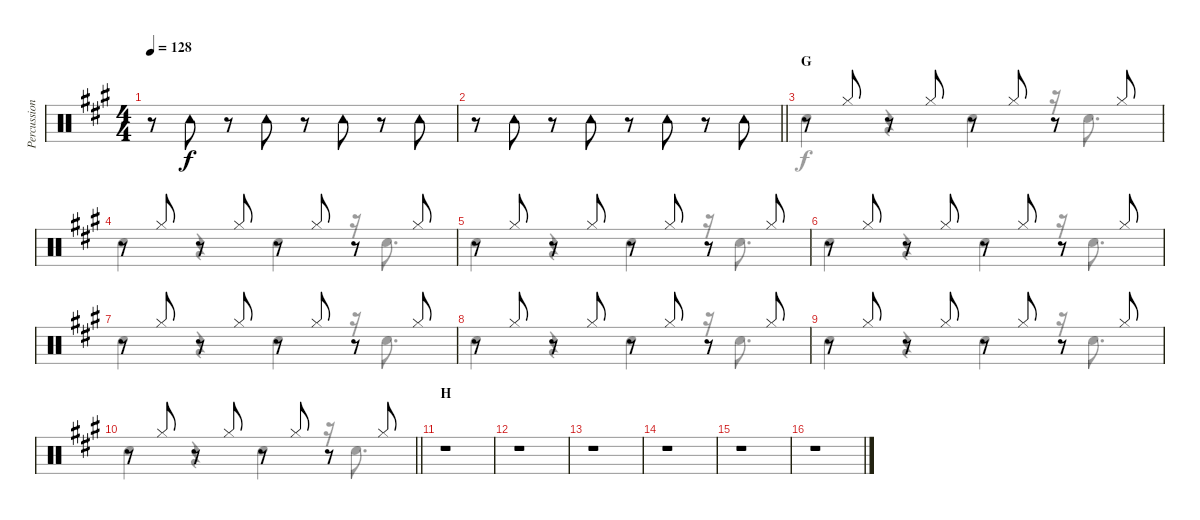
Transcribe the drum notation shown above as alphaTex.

\track ("Percussion" "Percussion") {instrument percussion}
\staff {score}
\articulation defaults
\voice
\ts (4 4)
\tempo 128
\clef neutral
\ks a
r.8{dy f} "Tambourine (hit)".8 r.8 "Tambourine (hit)".8 r.8 "Tambourine (hit)".8 r.8 "Tambourine (hit)".8 |
\barLineRight lightlight
r.8 "Tambourine (hit)".8 r.8 "Tambourine (hit)".8 r.8 "Tambourine (hit)".8 r.8 "Tambourine (hit)".8 |
\section ("" "G")
r.8 "Hi-Hat (closed)".8 r.8 "Hi-Hat (closed)".8 r.8 "Hi-Hat (closed)".8 r.8 "Hi-Hat (closed)".8 |
r.8 "Hi-Hat (closed)".8 r.8 "Hi-Hat (closed)".8 r.8 "Hi-Hat (closed)".8 r.8 "Hi-Hat (closed)".8 |
r.8 "Hi-Hat (closed)".8 r.8 "Hi-Hat (closed)".8 r.8 "Hi-Hat (closed)".8 r.8 "Hi-Hat (closed)".8 |
r.8 "Hi-Hat (closed)".8 r.8 "Hi-Hat (closed)".8 r.8 "Hi-Hat (closed)".8 r.8 "Hi-Hat (closed)".8 |
r.8 "Hi-Hat (closed)".8 r.8 "Hi-Hat (closed)".8 r.8 "Hi-Hat (closed)".8 r.8 "Hi-Hat (closed)".8 |
r.8 "Hi-Hat (closed)".8 r.8 "Hi-Hat (closed)".8 r.8 "Hi-Hat (closed)".8 r.8 "Hi-Hat (closed)".8 |
r.8 "Hi-Hat (closed)".8 r.8 "Hi-Hat (closed)".8 r.8 "Hi-Hat (closed)".8 r.8 "Hi-Hat (closed)".8 |
\barLineRight lightlight
r.8 "Hi-Hat (closed)".8 r.8 "Hi-Hat (closed)".8 r.8 "Hi-Hat (closed)".8 r.8 "Hi-Hat (closed)".8 |
\section ("" "H")
r.1 |
r.1 |
r.1 |
r.1 |
r.1 |
r.1
\voice
\clef neutral
\ottava regular
\simile none
\ks a
|
\barLineRight lightlight
|
"Snare (hit) 2".4 r.4 "Snare (hit) 2".4 r.16 "Snare (hit) 2".8{d} |
"Snare (hit) 2".4 r.4 "Snare (hit) 2".4 r.16 "Snare (hit) 2".8{d} |
"Snare (hit) 2".4 r.4 "Snare (hit) 2".4 r.16 "Snare (hit) 2".8{d} |
"Snare (hit) 2".4 r.4 "Snare (hit) 2".4 r.16 "Snare (hit) 2".8{d} |
"Snare (hit) 2".4 r.4 "Snare (hit) 2".4 r.16 "Snare (hit) 2".8{d} |
"Snare (hit) 2".4 r.4 "Snare (hit) 2".4 r.16 "Snare (hit) 2".8{d} |
"Snare (hit) 2".4 r.4 "Snare (hit) 2".4 r.16 "Snare (hit) 2".8{d} |
\barLineRight lightlight "Snare (hit) 2".4
r.4 "Snare (hit) 2".4 r.16 "Snare (hit) 2".8{d} |
|
|
|
|
|
